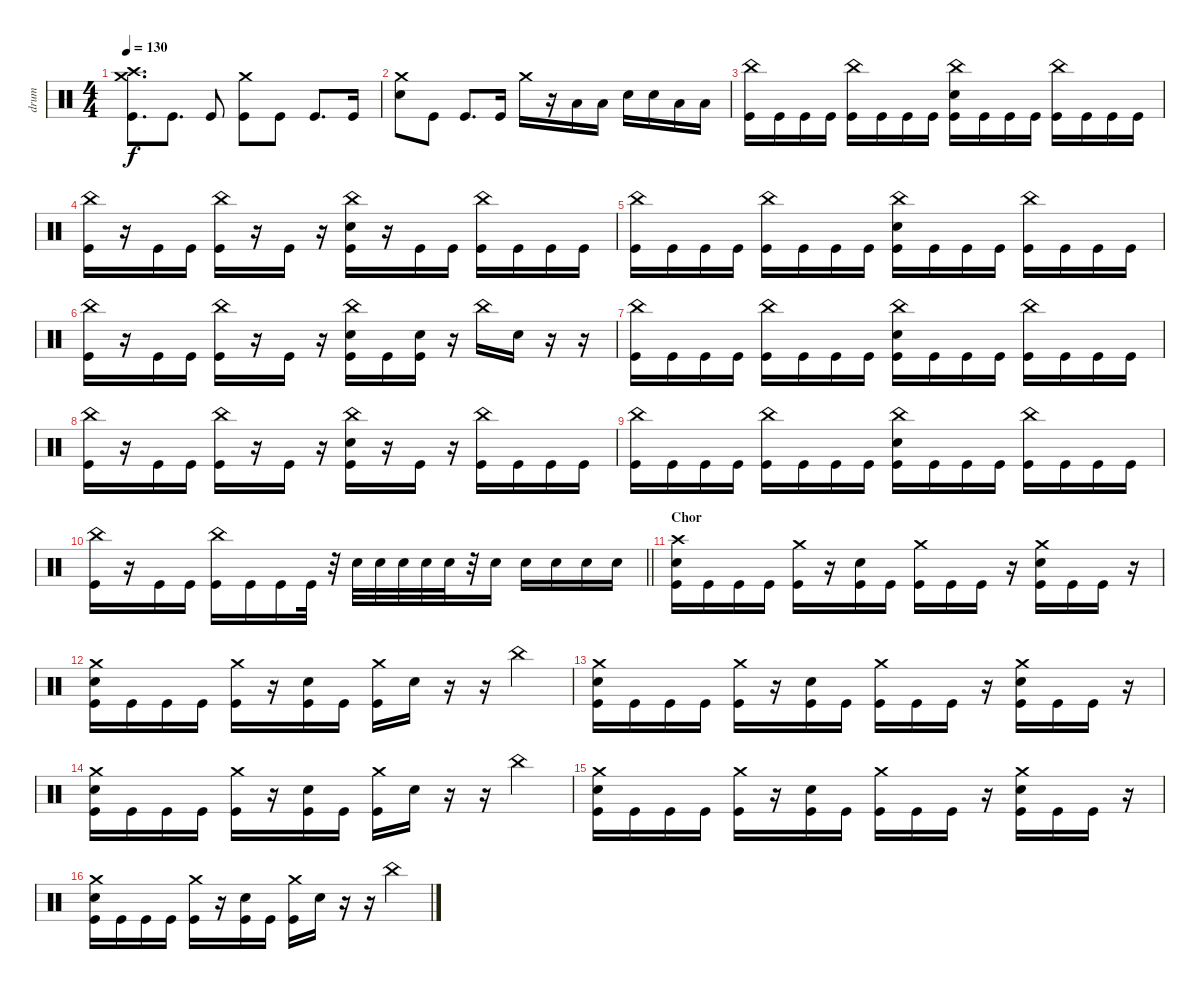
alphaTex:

\track ("drum" "drum") {instrument percussion}
\staff {score}
\articulation defaults
\ts (4 4)
\tempo 130
\clef neutral
\ks c
("Crash medium (hit)" "Crash high (hit)" "Kick (hit)").8{d dy f} "Kick (hit)".8{d} "Kick (hit)".8 ("Crash medium (hit)" "Kick (hit)").8 "Kick (hit)".8 "Kick (hit)".8{d} "Kick (hit)".16 |
("Crash medium (hit)" "Snare (hit) 2").8 "Kick (hit)".8 "Kick (hit)".8{d} "Kick (hit)".16 "Crash medium (hit)".16 r.16 "Low Tom (hit)".16 "Low Tom (hit)".16 "Snare (hit) 2".16 "Snare (hit) 2".16 "Low Tom (hit)".16 "Low Tom (hit)".16 |
("China (hit)" "Kick (hit)").16 "Kick (hit)".16 "Kick (hit)".16 "Kick (hit)".16 ("China (hit)" "Kick (hit)").16 "Kick (hit)".16 "Kick (hit)".16 "Kick (hit)".16 ("China (hit)" "Snare (hit) 2" "Kick (hit)").16 "Kick (hit)".16 "Kick (hit)".16 "Kick (hit)".16 ("China (hit)" "Kick (hit)").16 "Kick (hit)".16 "Kick (hit)".16 "Kick (hit)".16 |
("China (hit)" "Kick (hit)").16 r.16 "Kick (hit)".16 "Kick (hit)".16 ("China (hit)" "Kick (hit)").16 r.16 "Kick (hit)".16 r.16 ("China (hit)" "Snare (hit) 2" "Kick (hit)").16 r.16 "Kick (hit)".16 "Kick (hit)".16 ("China (hit)" "Kick (hit)").16 "Kick (hit)".16 "Kick (hit)".16 "Kick (hit)".16 |
("China (hit)" "Kick (hit)").16 "Kick (hit)".16 "Kick (hit)".16 "Kick (hit)".16 ("China (hit)" "Kick (hit)").16 "Kick (hit)".16 "Kick (hit)".16 "Kick (hit)".16 ("China (hit)" "Snare (hit) 2" "Kick (hit)").16 "Kick (hit)".16 "Kick (hit)".16 "Kick (hit)".16 ("China (hit)" "Kick (hit)").16 "Kick (hit)".16 "Kick (hit)".16 "Kick (hit)".16 |
("China (hit)" "Kick (hit)").16 r.16 "Kick (hit)".16 "Kick (hit)".16 ("China (hit)" "Kick (hit)").16 r.16 "Kick (hit)".16 r.16 ("China (hit)" "Snare (hit) 2" "Kick (hit)").16 "Kick (hit)".16 ("Snare (hit) 2" "Kick (hit)").16 r.16 "China (hit)".16 "Snare (hit) 2".16 r.16 r.16 |
("China (hit)" "Kick (hit)").16 "Kick (hit)".16 "Kick (hit)".16 "Kick (hit)".16 ("China (hit)" "Kick (hit)").16 "Kick (hit)".16 "Kick (hit)".16 "Kick (hit)".16 ("China (hit)" "Snare (hit) 2" "Kick (hit)").16 "Kick (hit)".16 "Kick (hit)".16 "Kick (hit)".16 ("China (hit)" "Kick (hit)").16 "Kick (hit)".16 "Kick (hit)".16 "Kick (hit)".16 |
("China (hit)" "Kick (hit)").16 r.16 "Kick (hit)".16 "Kick (hit)".16 ("China (hit)" "Kick (hit)").16 r.16 "Kick (hit)".16 r.16 ("China (hit)" "Snare (hit) 2" "Kick (hit)").16 r.16 "Kick (hit)".16 r.16 ("China (hit)" "Kick (hit)").16 "Kick (hit)".16 "Kick (hit)".16 "Kick (hit)".16 |
("China (hit)" "Kick (hit)").16 "Kick (hit)".16 "Kick (hit)".16 "Kick (hit)".16 ("China (hit)" "Kick (hit)").16 "Kick (hit)".16 "Kick (hit)".16 "Kick (hit)".16 ("China (hit)" "Snare (hit) 2" "Kick (hit)").16 "Kick (hit)".16 "Kick (hit)".16 "Kick (hit)".16 ("China (hit)" "Kick (hit)").16 "Kick (hit)".16 "Kick (hit)".16 "Kick (hit)".16 |
\barLineRight lightlight
("China (hit)" "Kick (hit)").16 r.16 "Kick (hit)".16 "Kick (hit)".16 ("China (hit)" "Kick (hit)").16 "Kick (hit)".16 "Kick (hit)".16 "Kick (hit)".32 r.32 "Snare (hit) 2".32 "Snare (hit) 2".32 "Snare (hit) 2".32 "Snare (hit) 2".32 "Snare (hit) 2".32 r.32 "Snare (hit) 2".16 "Snare (hit) 2".16 "Snare (hit) 2".16 "Snare (hit) 2".16 "Snare (hit) 2".16 |
\section ("" "Chor")
("Crash high (hit)" "Snare (hit) 2" "Kick (hit)").16 "Kick (hit)".16 "Kick (hit)".16 "Kick (hit)".16 ("Crash medium (hit)" "Kick (hit)").16 r.16 ("Snare (hit) 2" "Kick (hit)").16 "Kick (hit)".16 ("Crash medium (hit)" "Kick (hit)").16 "Kick (hit)".16 "Kick (hit)".16 r.16 ("Crash medium (hit)" "Snare (hit) 2" "Kick (hit)").16 "Kick (hit)".16 "Kick (hit)".16 r.16 |
("Crash medium (hit)" "Snare (hit) 2" "Kick (hit)").16 "Kick (hit)".16 "Kick (hit)".16 "Kick (hit)".16 ("Crash medium (hit)" "Kick (hit)").16 r.16 ("Snare (hit) 2" "Kick (hit)").16 "Kick (hit)".16 ("Crash medium (hit)" "Kick (hit)").16 "Snare (hit) 2".16 r.16 r.16 "China (hit)".4 |
("Crash medium (hit)" "Snare (hit) 2" "Kick (hit)").16 "Kick (hit)".16 "Kick (hit)".16 "Kick (hit)".16 ("Crash medium (hit)" "Kick (hit)").16 r.16 ("Snare (hit) 2" "Kick (hit)").16 "Kick (hit)".16 ("Crash medium (hit)" "Kick (hit)").16 "Kick (hit)".16 "Kick (hit)".16 r.16 ("Crash medium (hit)" "Snare (hit) 2" "Kick (hit)").16 "Kick (hit)".16 "Kick (hit)".16 r.16 |
("Crash medium (hit)" "Snare (hit) 2" "Kick (hit)").16 "Kick (hit)".16 "Kick (hit)".16 "Kick (hit)".16 ("Crash medium (hit)" "Kick (hit)").16 r.16 ("Snare (hit) 2" "Kick (hit)").16 "Kick (hit)".16 ("Crash medium (hit)" "Kick (hit)").16 "Snare (hit) 2".16 r.16 r.16 "China (hit)".4 |
("Crash medium (hit)" "Snare (hit) 2" "Kick (hit)").16 "Kick (hit)".16 "Kick (hit)".16 "Kick (hit)".16 ("Crash medium (hit)" "Kick (hit)").16 r.16 ("Snare (hit) 2" "Kick (hit)").16 "Kick (hit)".16 ("Crash medium (hit)" "Kick (hit)").16 "Kick (hit)".16 "Kick (hit)".16 r.16 ("Crash medium (hit)" "Snare (hit) 2" "Kick (hit)").16 "Kick (hit)".16 "Kick (hit)".16 r.16 |
("Crash medium (hit)" "Snare (hit) 2" "Kick (hit)").16 "Kick (hit)".16 "Kick (hit)".16 "Kick (hit)".16 ("Crash medium (hit)" "Kick (hit)").16 r.16 ("Snare (hit) 2" "Kick (hit)").16 "Kick (hit)".16 ("Crash medium (hit)" "Kick (hit)").16 "Snare (hit) 2".16 r.16 r.16 "China (hit)".4
